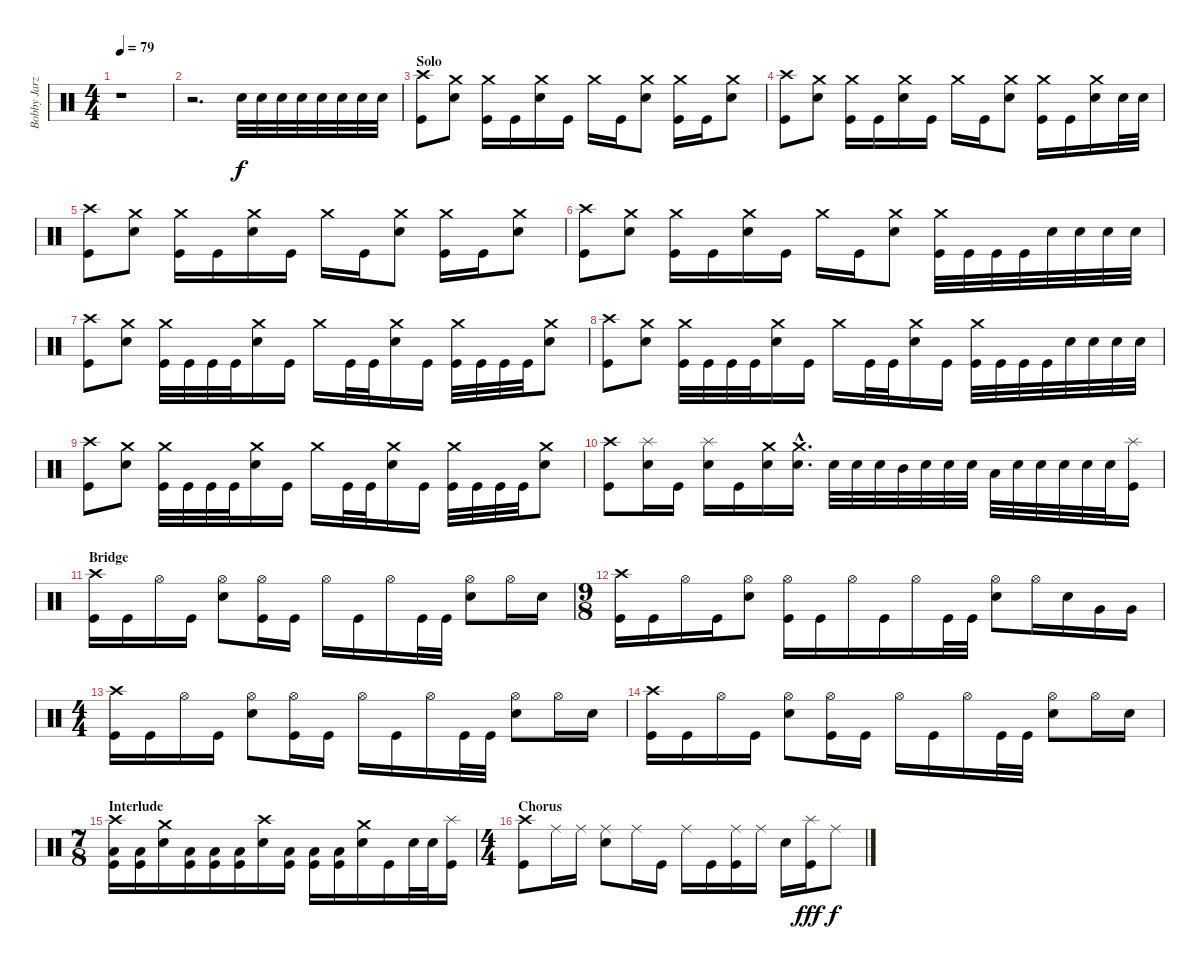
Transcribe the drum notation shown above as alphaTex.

\track ("Bobby Jarzombek" "Bobby Jarz") {instrument percussion}
\staff {score}
\articulation defaults
\ts (4 4)
\tempo 79
\clef neutral
\ks c
r.1{dy f} |
r.2{d} "Electric Snare (hit)".32 "Electric Snare (hit)".32 "Electric Snare (hit)".32 "Electric Snare (hit)".32 "Electric Snare (hit)".32 "Electric Snare (hit)".32 "Electric Snare (hit)".32 "Electric Snare (hit)".32 |
\section ("" "Solo")
("Crash high (hit)" "Kick (hit)").8 ("Crash medium (hit)" "Electric Snare (hit)").8 ("Crash medium (hit)" "Kick (hit)").16 "Kick (hit)".16 ("Crash medium (hit)" "Electric Snare (hit)").16 "Kick (hit)".16 "Crash medium (hit)".16 "Kick (hit)".16 ("Crash medium (hit)" "Electric Snare (hit)").8 ("Crash medium (hit)" "Kick (hit)").16 "Kick (hit)".16 ("Crash medium (hit)" "Electric Snare (hit)").8 |
("Crash high (hit)" "Kick (hit)").8 ("Crash medium (hit)" "Electric Snare (hit)").8 ("Crash medium (hit)" "Kick (hit)").16 "Kick (hit)".16 ("Crash medium (hit)" "Electric Snare (hit)").16 "Kick (hit)".16 "Crash medium (hit)".16 "Kick (hit)".16 ("Crash medium (hit)" "Electric Snare (hit)").8 ("Crash medium (hit)" "Kick (hit)").16 "Kick (hit)".16 ("Crash medium (hit)" "Electric Snare (hit)").16 "Electric Snare (hit)".32 "Electric Snare (hit)".32 |
("Crash high (hit)" "Kick (hit)").8 ("Crash medium (hit)" "Electric Snare (hit)").8 ("Crash medium (hit)" "Kick (hit)").16 "Kick (hit)".16 ("Crash medium (hit)" "Electric Snare (hit)").16 "Kick (hit)".16 "Crash medium (hit)".16 "Kick (hit)".16 ("Crash medium (hit)" "Electric Snare (hit)").8 ("Crash medium (hit)" "Kick (hit)").16 "Kick (hit)".16 ("Crash medium (hit)" "Electric Snare (hit)").8 |
("Crash high (hit)" "Kick (hit)").8 ("Crash medium (hit)" "Electric Snare (hit)").8 ("Crash medium (hit)" "Kick (hit)").16 "Kick (hit)".16 ("Crash medium (hit)" "Electric Snare (hit)").16 "Kick (hit)".16 "Crash medium (hit)".16 "Kick (hit)".16 ("Crash medium (hit)" "Electric Snare (hit)").8 ("Crash medium (hit)" "Kick (hit)").32 "Kick (hit)".32 "Kick (hit)".32 "Kick (hit)".32 "Electric Snare (hit)".32 "Electric Snare (hit)".32 "Electric Snare (hit)".32 "Electric Snare (hit)".32 |
("Crash high (hit)" "Kick (hit)").8 ("Crash medium (hit)" "Electric Snare (hit)").8 ("Crash medium (hit)" "Kick (hit)").32 "Kick (hit)".32 "Kick (hit)".32 "Kick (hit)".32 ("Crash medium (hit)" "Electric Snare (hit)").16 "Kick (hit)".16 "Crash medium (hit)".16 "Kick (hit)".32 "Kick (hit)".32 ("Crash medium (hit)" "Electric Snare (hit)").16 "Kick (hit)".16 ("Crash medium (hit)" "Kick (hit)").32 "Kick (hit)".32 "Kick (hit)".32 "Kick (hit)".32 ("Crash medium (hit)" "Electric Snare (hit)").8 |
("Crash high (hit)" "Kick (hit)").8 ("Crash medium (hit)" "Electric Snare (hit)").8 ("Crash medium (hit)" "Kick (hit)").32 "Kick (hit)".32 "Kick (hit)".32 "Kick (hit)".32 ("Crash medium (hit)" "Electric Snare (hit)").16 "Kick (hit)".16 "Crash medium (hit)".16 "Kick (hit)".32 "Kick (hit)".32 ("Crash medium (hit)" "Electric Snare (hit)").16 "Kick (hit)".16 ("Crash medium (hit)" "Kick (hit)").32 "Kick (hit)".32 "Kick (hit)".32 "Kick (hit)".32 "Electric Snare (hit)".32 "Electric Snare (hit)".32 "Electric Snare (hit)".32 "Electric Snare (hit)".32 |
("Crash high (hit)" "Kick (hit)").8 ("Crash medium (hit)" "Electric Snare (hit)").8 ("Crash medium (hit)" "Kick (hit)").32 "Kick (hit)".32 "Kick (hit)".32 "Kick (hit)".32 ("Crash medium (hit)" "Electric Snare (hit)").16 "Kick (hit)".16 "Crash medium (hit)".16 "Kick (hit)".32 "Kick (hit)".32 ("Crash medium (hit)" "Electric Snare (hit)").16 "Kick (hit)".16 ("Crash medium (hit)" "Kick (hit)").32 "Kick (hit)".32 "Kick (hit)".32 "Kick (hit)".32 ("Crash medium (hit)" "Electric Snare (hit)").8 |
("Crash high (hit)" "Kick (hit)").8 ("Splash (hit)" "Electric Snare (hit)").16 "Kick (hit)".16 ("Splash (hit)" "Electric Snare (hit)").16 "Kick (hit)".16 ("Crash medium (hit)" "Electric Snare (hit)").16 ("Crash medium (hit)"{hac} "Electric Snare (hit)"{hac}).16{d} "Electric Snare (hit)".32 "Electric Snare (hit)".32 "Electric Snare (hit)".32 "Mid Tom (hit)".32 "Electric Snare (hit)".32 "Electric Snare (hit)".32 "Electric Snare (hit)".32 "Low Tom (hit)".32 "Electric Snare (hit)".32 "Electric Snare (hit)".32 "Electric Snare (hit)".32 "Electric Snare (hit)".32 "Electric Snare (hit)".32 ("Splash (hit)" "Kick (hit)").16 |
\section ("" "Bridge")
("Crash high (hit)" "Kick (hit)").16 "Kick (hit)".16 "Hi-Hat (open)".16 "Kick (hit)".16 ("Hi-Hat (open)" "Electric Snare (hit)").8 ("Hi-Hat (open)" "Kick (hit)").16 "Kick (hit)".16 "Hi-Hat (open)".16 "Kick (hit)".16 "Hi-Hat (open)".16 "Kick (hit)".32 "Kick (hit)".32 ("Hi-Hat (open)" "Electric Snare (hit)").8 "Hi-Hat (open)".16 "Electric Snare (hit)".16 |
\ts (9 8)
("Crash high (hit)" "Kick (hit)").16 "Kick (hit)".16 "Hi-Hat (open)".16 "Kick (hit)".16 ("Hi-Hat (open)" "Electric Snare (hit)").8 ("Hi-Hat (open)" "Kick (hit)").16 "Kick (hit)".16 "Hi-Hat (open)".16 "Kick (hit)".16 "Hi-Hat (open)".16 "Kick (hit)".32 "Kick (hit)".32 ("Hi-Hat (open)" "Electric Snare (hit)").8 "Hi-Hat (open)".16 "Electric Snare (hit)".16 "Very Low Tom (hit)".16 "Very Low Tom (hit)".16 |
\ts (4 4)
("Crash high (hit)" "Kick (hit)").16 "Kick (hit)".16 "Hi-Hat (open)".16 "Kick (hit)".16 ("Hi-Hat (open)" "Electric Snare (hit)").8 ("Hi-Hat (open)" "Kick (hit)").16 "Kick (hit)".16 "Hi-Hat (open)".16 "Kick (hit)".16 "Hi-Hat (open)".16 "Kick (hit)".32 "Kick (hit)".32 ("Hi-Hat (open)" "Electric Snare (hit)").8 "Hi-Hat (open)".16 "Electric Snare (hit)".16 |
("Crash high (hit)" "Kick (hit)").16 "Kick (hit)".16 "Hi-Hat (open)".16 "Kick (hit)".16 ("Hi-Hat (open)" "Electric Snare (hit)").8 ("Hi-Hat (open)" "Kick (hit)").16 "Kick (hit)".16 "Hi-Hat (open)".16 "Kick (hit)".16 "Hi-Hat (open)".16 "Kick (hit)".32 "Kick (hit)".32 ("Hi-Hat (open)" "Electric Snare (hit)").8 "Hi-Hat (open)".16 "Electric Snare (hit)".16 |
\ts (7 8)
\section ("" "Interlude")
("Crash high (hit)" "Low Tom (hit)" "Kick (hit)").16 ("Low Tom (hit)" "Kick (hit)").16 ("Crash medium (hit)" "Electric Snare (hit)").16 ("Low Tom (hit)" "Kick (hit)").16 ("Low Tom (hit)" "Kick (hit)").16 ("Low Tom (hit)" "Kick (hit)").16 ("Crash high (hit)" "Electric Snare (hit)").16 ("Low Tom (hit)" "Kick (hit)").16 ("Low Tom (hit)" "Kick (hit)").16 ("Low Tom (hit)" "Kick (hit)").16 ("Crash medium (hit)" "Electric Snare (hit)").16 "Kick (hit)".16 "Electric Snare (hit)".32 "Electric Snare (hit)".32 ("Splash (hit)" "Kick (hit)").16 |
\ts (4 4)
\section ("" "Chorus")
("Crash high (hit)" "Kick (hit)").8 "Ride (middle)".16 "Ride (middle)".16 ("Ride (middle)" "Electric Snare (hit)").8 "Ride (middle)".16 "Kick (hit)".16 "Ride (middle)".16 "Kick (hit)".16 ("Ride (middle)" "Kick (hit)").16 "Ride (middle)".16 "Electric Snare (hit)".16 ("Splash (hit)" "Kick (hit)").16{dy fff} "Ride (middle)".8{dy f}
